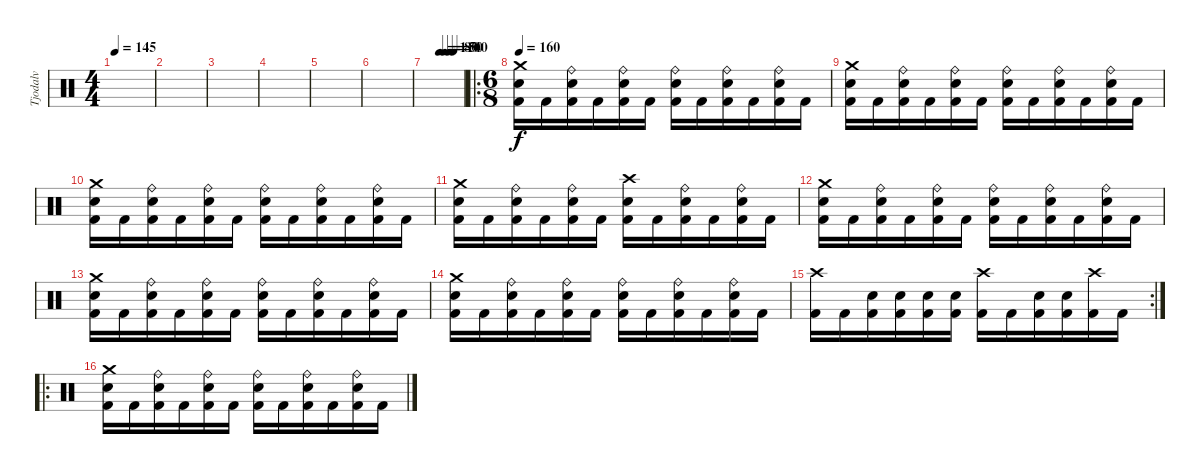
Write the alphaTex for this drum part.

\track ("Tjodalv" "Tjodalv") {instrument percussion}
\staff {score}
\articulation defaults
\ts (4 4)
\tempo 145
\clef neutral
\ks c
|
|
|
|
|
|
\tempo (110 0.375)
\tempo (80 0.5)
\tempo (50 0.625)
\tempo (40 0.75)
|
\ro
\ts (6 8)
\tempo 160
("Crash medium (hit)" "Snare (hit) 2" "Kick (hit) 2").16 "Kick (hit) 2".16 ("Ride (bell)" "Snare (hit) 2" "Kick (hit) 2").16 "Kick (hit) 2".16 ("Ride (bell)" "Snare (hit) 2" "Kick (hit) 2").16 "Kick (hit) 2".16 ("Ride (bell)" "Snare (hit) 2" "Kick (hit) 2").16 "Kick (hit) 2".16 ("Ride (bell)" "Snare (hit) 2" "Kick (hit) 2").16 "Kick (hit) 2".16 ("Ride (bell)" "Snare (hit) 2" "Kick (hit) 2").16 "Kick (hit) 2".16 |
("Crash medium (hit)" "Snare (hit) 2" "Kick (hit) 2").16 "Kick (hit) 2".16 ("Ride (bell)" "Snare (hit) 2" "Kick (hit) 2").16 "Kick (hit) 2".16 ("Ride (bell)" "Snare (hit) 2" "Kick (hit) 2").16 "Kick (hit) 2".16 ("Ride (bell)" "Snare (hit) 2" "Kick (hit) 2").16 "Kick (hit) 2".16 ("Ride (bell)" "Snare (hit) 2" "Kick (hit) 2").16 "Kick (hit) 2".16 ("Ride (bell)" "Snare (hit) 2" "Kick (hit) 2").16 "Kick (hit) 2".16 |
("Crash medium (hit)" "Snare (hit) 2" "Kick (hit) 2").16 "Kick (hit) 2".16 ("Ride (bell)" "Snare (hit) 2" "Kick (hit) 2").16 "Kick (hit) 2".16 ("Ride (bell)" "Snare (hit) 2" "Kick (hit) 2").16 "Kick (hit) 2".16 ("Ride (bell)" "Snare (hit) 2" "Kick (hit) 2").16 "Kick (hit) 2".16 ("Ride (bell)" "Snare (hit) 2" "Kick (hit) 2").16 "Kick (hit) 2".16 ("Ride (bell)" "Snare (hit) 2" "Kick (hit) 2").16 "Kick (hit) 2".16 |
("Crash medium (hit)" "Snare (hit) 2" "Kick (hit) 2").16 "Kick (hit) 2".16 ("Ride (bell)" "Snare (hit) 2" "Kick (hit) 2").16 "Kick (hit) 2".16 ("Ride (bell)" "Snare (hit) 2" "Kick (hit) 2").16 "Kick (hit) 2".16 ("Crash high (hit)" "Snare (hit) 2" "Kick (hit) 2").16 "Kick (hit) 2".16 ("Ride (bell)" "Snare (hit) 2" "Kick (hit) 2").16 "Kick (hit) 2".16 ("Ride (bell)" "Snare (hit) 2" "Kick (hit) 2").16 "Kick (hit) 2".16 |
("Crash medium (hit)" "Snare (hit) 2" "Kick (hit) 2").16 "Kick (hit) 2".16 ("Ride (bell)" "Snare (hit) 2" "Kick (hit) 2").16 "Kick (hit) 2".16 ("Ride (bell)" "Snare (hit) 2" "Kick (hit) 2").16 "Kick (hit) 2".16 ("Ride (bell)" "Snare (hit) 2" "Kick (hit) 2").16 "Kick (hit) 2".16 ("Ride (bell)" "Snare (hit) 2" "Kick (hit) 2").16 "Kick (hit) 2".16 ("Ride (bell)" "Snare (hit) 2" "Kick (hit) 2").16 "Kick (hit) 2".16 |
("Crash medium (hit)" "Snare (hit) 2" "Kick (hit) 2").16 "Kick (hit) 2".16 ("Ride (bell)" "Snare (hit) 2" "Kick (hit) 2").16 "Kick (hit) 2".16 ("Ride (bell)" "Snare (hit) 2" "Kick (hit) 2").16 "Kick (hit) 2".16 ("Ride (bell)" "Snare (hit) 2" "Kick (hit) 2").16 "Kick (hit) 2".16 ("Ride (bell)" "Snare (hit) 2" "Kick (hit) 2").16 "Kick (hit) 2".16 ("Ride (bell)" "Snare (hit) 2" "Kick (hit) 2").16 "Kick (hit) 2".16 |
("Crash medium (hit)" "Snare (hit) 2" "Kick (hit) 2").16 "Kick (hit) 2".16 ("Ride (bell)" "Snare (hit) 2" "Kick (hit) 2").16 "Kick (hit) 2".16 ("Ride (bell)" "Snare (hit) 2" "Kick (hit) 2").16 "Kick (hit) 2".16 ("Ride (bell)" "Snare (hit) 2" "Kick (hit) 2").16 "Kick (hit) 2".16 ("Ride (bell)" "Snare (hit) 2" "Kick (hit) 2").16 "Kick (hit) 2".16 ("Ride (bell)" "Snare (hit) 2" "Kick (hit) 2").16 "Kick (hit) 2".16 |
\rc 2
("Crash high (hit)" "Kick (hit) 2").16 "Kick (hit) 2".16 ("Snare (hit) 2" "Kick (hit) 2").16 ("Snare (hit) 2" "Kick (hit) 2").16 ("Snare (hit) 2" "Kick (hit) 2").16 ("Snare (hit) 2" "Kick (hit) 2").16 ("Crash high (hit)" "Kick (hit) 2").16 "Kick (hit) 2".16 ("Snare (hit) 2" "Kick (hit) 2").16 ("Snare (hit) 2" "Kick (hit) 2").16 ("Crash high (hit)" "Kick (hit) 2").16 "Kick (hit) 2".16 |
\ro
("Crash medium (hit)" "Snare (hit) 2" "Kick (hit) 2").16 "Kick (hit) 2".16 ("Ride (bell)" "Snare (hit) 2" "Kick (hit) 2").16 "Kick (hit) 2".16 ("Ride (bell)" "Snare (hit) 2" "Kick (hit) 2").16 "Kick (hit) 2".16 ("Ride (bell)" "Snare (hit) 2" "Kick (hit) 2").16 "Kick (hit) 2".16 ("Ride (bell)" "Snare (hit) 2" "Kick (hit) 2").16 "Kick (hit) 2".16 ("Ride (bell)" "Snare (hit) 2" "Kick (hit) 2").16 "Kick (hit) 2".16
